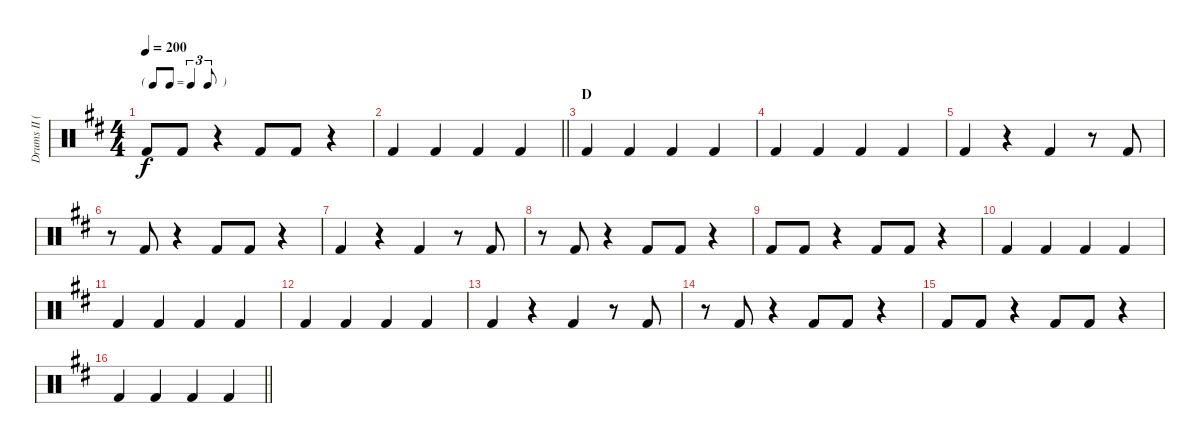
\track ("Drums II (Ruka)" "Drums II (") {instrument percussion}
\staff {score}
\articulation defaults
\ts (4 4)
\tf triplet8th
\tempo 200
\clef neutral
\ks d "Kick (hit) 2".8{dy f} "Kick (hit) 2".8
r.4 "Kick (hit) 2".8 "Kick (hit) 2".8 r.4 |
\barLineRight lightlight "Kick (hit) 2".4 "Kick (hit) 2".4 "Kick (hit) 2".4 "Kick (hit) 2".4
|
\section ("" "D")
"Kick (hit) 2".4 "Kick (hit) 2".4 "Kick (hit) 2".4 "Kick (hit) 2".4 |
"Kick (hit) 2".4 "Kick (hit) 2".4 "Kick (hit) 2".4 "Kick (hit) 2".4 |
"Kick (hit) 2".4 r.4 "Kick (hit) 2".4 r.8 "Kick (hit) 2".8 |
r.8 "Kick (hit) 2".8 r.4 "Kick (hit) 2".8 "Kick (hit) 2".8 r.4 |
"Kick (hit) 2".4 r.4 "Kick (hit) 2".4 r.8 "Kick (hit) 2".8 |
r.8 "Kick (hit) 2".8 r.4 "Kick (hit) 2".8 "Kick (hit) 2".8 r.4 |
"Kick (hit) 2".8 "Kick (hit) 2".8 r.4 "Kick (hit) 2".8 "Kick (hit) 2".8 r.4 |
"Kick (hit) 2".4 "Kick (hit) 2".4 "Kick (hit) 2".4 "Kick (hit) 2".4 |
"Kick (hit) 2".4 "Kick (hit) 2".4 "Kick (hit) 2".4 "Kick (hit) 2".4 |
"Kick (hit) 2".4 "Kick (hit) 2".4 "Kick (hit) 2".4 "Kick (hit) 2".4 |
"Kick (hit) 2".4 r.4 "Kick (hit) 2".4 r.8 "Kick (hit) 2".8 |
r.8 "Kick (hit) 2".8 r.4 "Kick (hit) 2".8 "Kick (hit) 2".8 r.4 |
"Kick (hit) 2".8 "Kick (hit) 2".8 r.4 "Kick (hit) 2".8 "Kick (hit) 2".8 r.4 |
\barLineRight lightlight "Kick (hit) 2".4 "Kick (hit) 2".4 "Kick (hit) 2".4 "Kick (hit) 2".4
